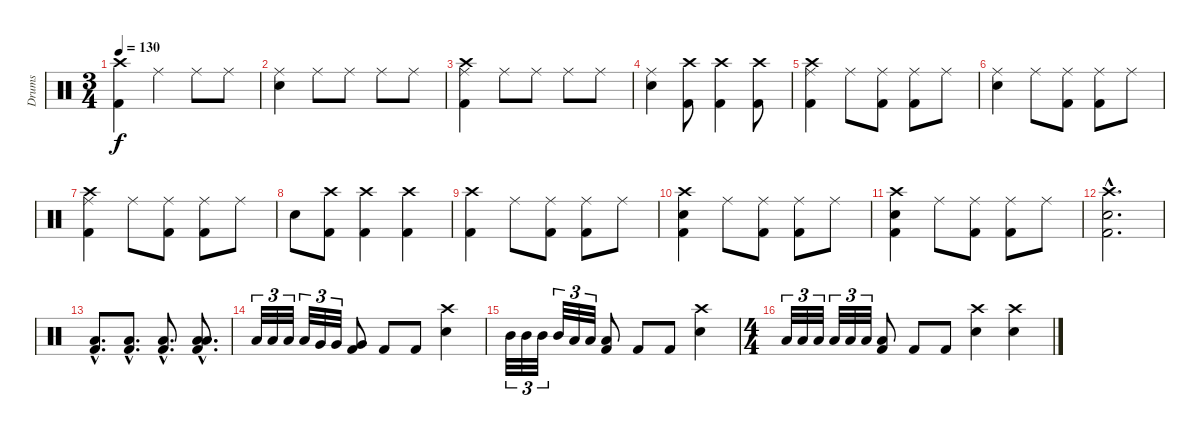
\track ("Drums" "Drums") {instrument percussion}
\staff {score}
\articulation defaults
\ts (3 4)
\tempo 130
\clef neutral
\ks c
("Crash high (hit)" "Kick (hit) 2").4{dy f} "Ride (middle)".4 "Ride (middle)".8 "Ride (middle)".8 |
("Ride (middle)" "Snare (hit) 2").4 "Ride (middle)".8 "Ride (middle)".8 "Ride (middle)".8 "Ride (middle)".8 |
("Crash high (hit)" "Ride (middle)" "Kick (hit) 2").4 "Ride (middle)".8 "Ride (middle)".8 "Ride (middle)".8 "Ride (middle)".8 |
("Ride (middle)" "Snare (hit) 2").4 ("Crash high (hit)" "Kick (hit) 2").8 ("Crash high (hit)" "Kick (hit) 2").4 ("Crash high (hit)" "Kick (hit) 2").8 |
("Crash high (hit)" "Ride (middle)" "Kick (hit) 2").4 "Ride (middle)".8 ("Ride (middle)" "Kick (hit) 2").8 ("Ride (middle)" "Kick (hit) 2").8 "Ride (middle)".8 |
("Ride (middle)" "Snare (hit) 2").4 "Ride (middle)".8 ("Ride (middle)" "Kick (hit) 2").8 ("Ride (middle)" "Kick (hit) 2").8 "Ride (middle)".8 |
("Crash high (hit)" "Ride (middle)" "Kick (hit) 2").4 "Ride (middle)".8 ("Ride (middle)" "Kick (hit) 2").8 ("Ride (middle)" "Kick (hit) 2").8 "Ride (middle)".8 |
"Snare (hit) 2".8 ("Crash high (hit)" "Kick (hit) 2").8 ("Crash high (hit)" "Kick (hit) 2").4 ("Crash high (hit)" "Kick (hit) 2").4 |
("Crash high (hit)" "Kick (hit) 2").4 "Ride (middle)".8 ("Ride (middle)" "Kick (hit) 2").8 ("Ride (middle)" "Kick (hit) 2").8 "Ride (middle)".8 |
("Crash high (hit)" "Snare (hit) 2" "Kick (hit) 2").4 "Ride (middle)".8 ("Ride (middle)" "Kick (hit) 2").8 ("Ride (middle)" "Kick (hit) 2").8 "Ride (middle)".8 |
("Crash high (hit)" "Snare (hit) 2" "Kick (hit) 2").4 "Ride (middle)".8 ("Ride (middle)" "Kick (hit) 2").8 ("Ride (middle)" "Kick (hit) 2").8 "Ride (middle)".8 |
("Crash high (hit)"{hac} "Snare (hit) 2"{hac} "Kick (hit) 2"{hac}).2{d} |
("Low Tom (hit)"{hac} "Kick (hit) 2"{hac}).8{d} ("Low Tom (hit)"{hac} "Kick (hit) 2"{hac}).8{d} ("Low Tom (hit)"{hac} "Kick (hit) 2"{hac}).8{d} ("Low Tom (hit)"{hac} "Low Floor Tom (hit)"{hac} "Kick (hit) 2"{hac}).8{d} |
"Low Floor Tom (hit)".32{tu (3 2)} "Low Floor Tom (hit)".32{tu (3 2)} "Low Floor Tom (hit)".32{tu (3 2)} "Low Floor Tom (hit)".32{tu (3 2)} "Very Low Tom (hit)".32{tu (3 2)} "Very Low Tom (hit)".32{tu (3 2)} ("Very Low Tom (hit)" "Kick (hit) 2").8 "Kick (hit) 2".8 "Kick (hit) 2".8 ("Crash high (hit)" "Snare (hit) 2").4 |
"Mid Tom (hit)".32{tu (3 2)} "Mid Tom (hit)".32{tu (3 2)} "Mid Tom (hit)".32{tu (3 2)} "Mid Tom (hit)".32{tu (3 2)} "Low Tom (hit)".32{tu (3 2)} "Low Tom (hit)".32{tu (3 2)} ("Low Tom (hit)" "Kick (hit) 2").8 "Kick (hit) 2".8 "Kick (hit) 2".8 ("Crash high (hit)" "Snare (hit) 2").4 |
\ts (4 4)
"Low Tom (hit)".32{tu (3 2)} "Low Tom (hit)".32{tu (3 2)} "Low Tom (hit)".32{tu (3 2)} "Low Tom (hit)".32{tu (3 2)} "Low Floor Tom (hit)".32{tu (3 2)} "Low Floor Tom (hit)".32{tu (3 2)} ("Low Floor Tom (hit)" "Kick (hit) 2").8 "Kick (hit) 2".8 "Kick (hit) 2".8 ("Crash high (hit)" "Snare (hit) 2").4 ("Crash high (hit)" "Snare (hit) 2").4
